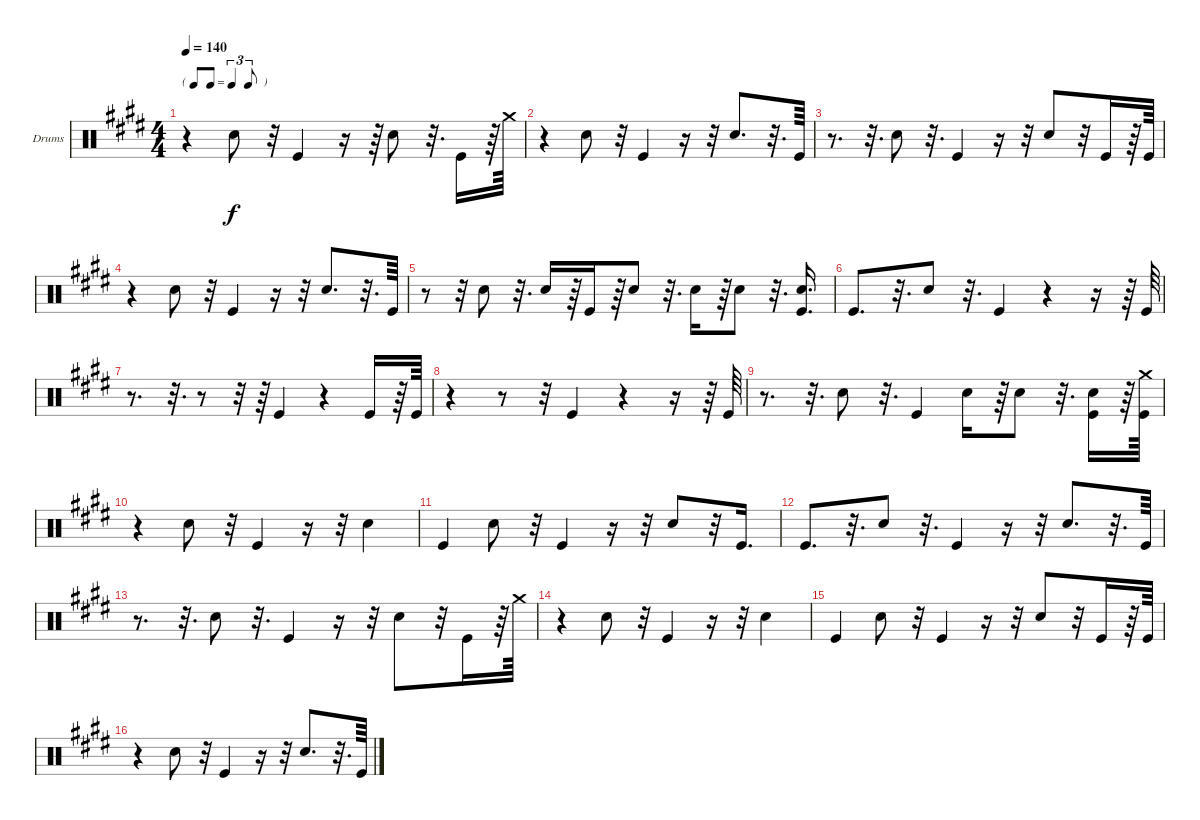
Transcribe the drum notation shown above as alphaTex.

\bracketExtendMode groupsimilarinstruments
\firstSystemTrackNameOrientation horizontal
\otherSystemsTrackNameOrientation horizontal
\track ("Drumkit" "Drums") {instrument percussion}
\staff {score}
\articulation defaults
\ts (4 4)
\tf triplet8th
\tempo 140
\clef neutral
\ks e
r.4{dy f} "Snare (hit) 2".8 r.32 "Kick (hit)".4 r.16 r.64 "Snare (hit) 2".8 r.32{d} "Kick (hit)".16 r.64 "Crash medium (hit)".64 |
r.4 "Snare (hit) 2".8 r.32 "Kick (hit)".4 r.16 r.32 "Snare (hit) 2".8{d} r.32{d} "Kick (hit)".64 |
r.8{d} r.32{d} "Snare (hit) 2".8 r.32{d} "Kick (hit)".4 r.16 r.32 "Snare (hit) 2".8 r.32 "Kick (hit)".16 r.64 "Kick (hit)".64 |
r.4 "Snare (hit) 2".8 r.32 "Kick (hit)".4 r.16 r.32 "Snare (hit) 2".8{d} r.32{d} "Kick (hit)".64 |
r.8 r.32 "Snare (hit) 2".8 r.32{d} "Snare (hit) 2".16 r.64 "Kick (hit)".16 r.64 "Snare (hit) 2".8 r.32{d} "Snare (hit) 2".16 r.64 "Snare (hit) 2".8 r.32{d} ("Kick (hit)" "Snare (hit) 2").16{d} |
"Kick (hit)".8{d} r.32{d} "Snare (hit) 2".8 r.32{d} "Kick (hit)".4 r.4 r.16 r.64 "Kick (hit)".64 |
r.8{d} r.32{d} r.8 r.32 r.64 "Kick (hit)".4 r.4 "Kick (hit)".16 r.64 "Kick (hit)".64 |
r.4 r.8 r.32 "Kick (hit)".4 r.4 r.16 r.64 "Kick (hit)".64 |
r.8{d} r.32{d} "Snare (hit) 2".8 r.32{d} "Kick (hit)".4 "Snare (hit) 2".16 r.64 "Snare (hit) 2".8 r.32{d} ("Kick (hit)" "Snare (hit) 2").16 r.64 ("Kick (hit)" "Crash medium (hit)").64 |
r.4 "Snare (hit) 2".8 r.32 "Kick (hit)".4 r.16 r.32 "Snare (hit) 2".4 |
"Kick (hit)".4 "Snare (hit) 2".8 r.32 "Kick (hit)".4 r.16 r.32 "Snare (hit) 2".8 r.32 "Kick (hit)".16{d} |
"Kick (hit)".8{d} r.32{d} "Snare (hit) 2".8 r.32{d} "Kick (hit)".4 r.16 r.32 "Snare (hit) 2".8{d} r.32{d} "Kick (hit)".64 |
r.8{d} r.32{d} "Snare (hit) 2".8 r.32{d} "Kick (hit)".4 r.16 r.32 "Snare (hit) 2".8 r.32 "Kick (hit)".16 r.64 "Crash medium (hit)".64 |
r.4 "Snare (hit) 2".8 r.32 "Kick (hit)".4 r.16 r.32 "Snare (hit) 2".4 |
"Kick (hit)".4 "Snare (hit) 2".8 r.32 "Kick (hit)".4 r.16 r.32 "Snare (hit) 2".8 r.32 "Kick (hit)".16 r.64 "Kick (hit)".64 |
r.4 "Snare (hit) 2".8 r.32 "Kick (hit)".4 r.16 r.32 "Snare (hit) 2".8{d} r.32{d} "Kick (hit)".64
